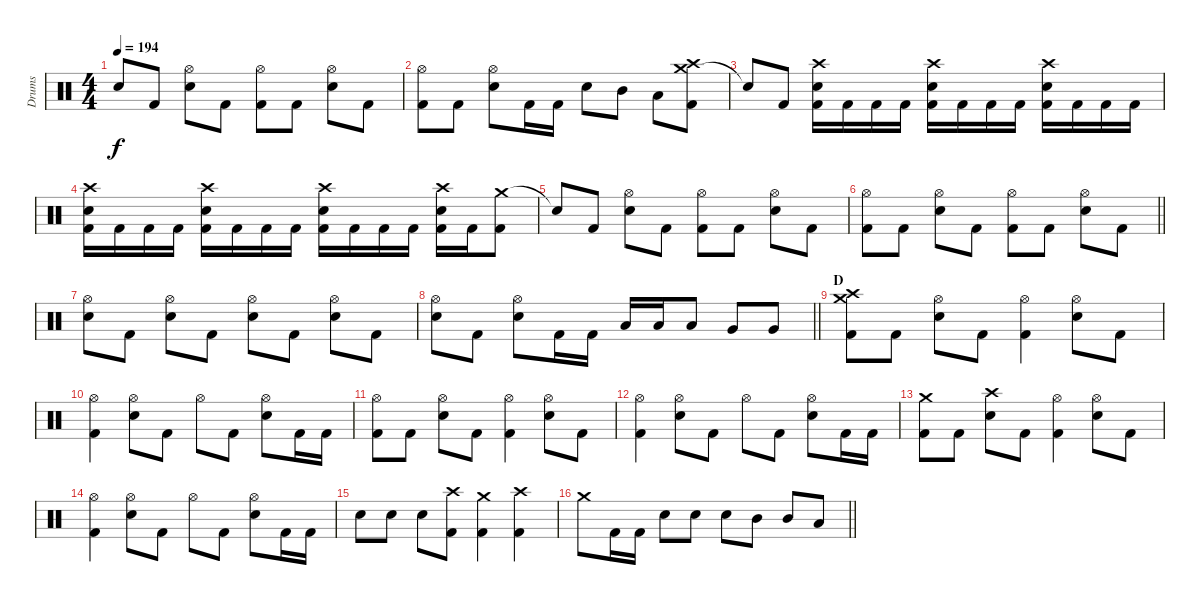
\track ("Drums" "Drums") {instrument percussion}
\staff {score}
\articulation defaults
\ts (4 4)
\tempo 194
\clef neutral
\ks c "Snare (hit)"{t}.8{dy f} "Kick (hit) 2".8
("Hi-Hat (open)" "Electric Snare (hit)").8 "Kick (hit) 2".8 ("Hi-Hat (open)" "Kick (hit) 2").8 "Kick (hit) 2".8 ("Hi-Hat (open)" "Electric Snare (hit)").8 "Kick (hit) 2".8 |
("Hi-Hat (open)" "Kick (hit) 2").8 "Kick (hit) 2".8 ("Hi-Hat (open)" "Electric Snare (hit)").8 "Kick (hit) 2".16 "Kick (hit) 2".16 "Electric Snare (hit)".8 "Mid Tom (hit)".8 "Low Tom (hit)".8 ("Crash medium (hit)" "Crash high (hit)" "Kick (hit) 2").8 |
"Snare (hit)"{t}.8 "Kick (hit) 2".8 ("Crash high (hit)" "Electric Snare (hit)" "Kick (hit) 2").16 "Kick (hit) 2".16 "Kick (hit) 2".16 "Kick (hit) 2".16 ("Crash high (hit)" "Electric Snare (hit)" "Kick (hit) 2").16 "Kick (hit) 2".16 "Kick (hit) 2".16 "Kick (hit) 2".16 ("Crash high (hit)" "Electric Snare (hit)" "Kick (hit) 2").16 "Kick (hit) 2".16 "Kick (hit) 2".16 "Kick (hit) 2".16 |
("Crash high (hit)" "Electric Snare (hit)" "Kick (hit) 2").16 "Kick (hit) 2".16 "Kick (hit) 2".16 "Kick (hit) 2".16 ("Crash high (hit)" "Electric Snare (hit)" "Kick (hit) 2").16 "Kick (hit) 2".16 "Kick (hit) 2".16 "Kick (hit) 2".16 ("Crash high (hit)" "Electric Snare (hit)" "Kick (hit) 2").16 "Kick (hit) 2".16 "Kick (hit) 2".16 "Kick (hit) 2".16 ("Crash high (hit)" "Electric Snare (hit)" "Kick (hit) 2").16 "Kick (hit) 2".16 ("Crash medium (hit)" "Kick (hit) 2").8 |
"Snare (hit)"{t}.8 "Kick (hit) 2".8 ("Hi-Hat (open)" "Electric Snare (hit)").8 "Kick (hit) 2".8 ("Hi-Hat (open)" "Kick (hit) 2").8 "Kick (hit) 2".8 ("Hi-Hat (open)" "Electric Snare (hit)").8 "Kick (hit) 2".8 |
\barLineRight lightlight
("Hi-Hat (open)" "Kick (hit) 2").8 "Kick (hit) 2".8 ("Hi-Hat (open)" "Electric Snare (hit)").8 "Kick (hit) 2".8 ("Hi-Hat (open)" "Kick (hit) 2").8 "Kick (hit) 2".8 ("Hi-Hat (open)" "Electric Snare (hit)").8 "Kick (hit) 2".8 |
\section ("" "")
("Hi-Hat (open)" "Electric Snare (hit)").8 "Kick (hit) 2".8 ("Hi-Hat (open)" "Electric Snare (hit)").8 "Kick (hit) 2".8 ("Hi-Hat (open)" "Electric Snare (hit)").8 "Kick (hit) 2".8 ("Hi-Hat (open)" "Electric Snare (hit)").8 "Kick (hit) 2".8 |
\barLineRight lightlight
("Hi-Hat (open)" "Electric Snare (hit)").8 "Kick (hit) 2".8 ("Hi-Hat (open)" "Electric Snare (hit)").8 "Kick (hit) 2".16 "Kick (hit) 2".16 "Low Tom (hit)".16 "Low Tom (hit)".16 "Low Tom (hit)".8 "Very Low Tom (hit)".8 "Very Low Tom (hit)".8 |
\section ("" "D")
("Crash medium (hit)" "Crash high (hit)" "Kick (hit) 2").8 "Kick (hit) 2".8 ("Hi-Hat (open)" "Electric Snare (hit)").8 "Kick (hit) 2".8 ("Hi-Hat (open)" "Kick (hit) 2").4 ("Hi-Hat (open)" "Electric Snare (hit)").8 "Kick (hit) 2".8 |
("Hi-Hat (open)" "Kick (hit) 2").4 ("Hi-Hat (open)" "Electric Snare (hit)").8 "Kick (hit) 2".8 "Hi-Hat (open)".8 "Kick (hit) 2".8 ("Hi-Hat (open)" "Electric Snare (hit)").8 "Kick (hit) 2".16 "Kick (hit) 2".16 |
("Hi-Hat (open)" "Kick (hit) 2").8 "Kick (hit) 2".8 ("Hi-Hat (open)" "Electric Snare (hit)").8 "Kick (hit) 2".8 ("Hi-Hat (open)" "Kick (hit) 2").4 ("Hi-Hat (open)" "Electric Snare (hit)").8 "Kick (hit) 2".8 |
("Hi-Hat (open)" "Kick (hit) 2").4 ("Hi-Hat (open)" "Electric Snare (hit)").8 "Kick (hit) 2".8 "Hi-Hat (open)".8 "Kick (hit) 2".8 ("Hi-Hat (open)" "Electric Snare (hit)").8 "Kick (hit) 2".16 "Kick (hit) 2".16 |
("Crash medium (hit)" "Kick (hit) 2").8 "Kick (hit) 2".8 ("Crash high (hit)" "Electric Snare (hit)").8 "Kick (hit) 2".8 ("Hi-Hat (open)" "Kick (hit) 2").4 ("Hi-Hat (open)" "Electric Snare (hit)").8 "Kick (hit) 2".8 |
("Hi-Hat (open)" "Kick (hit) 2").4 ("Hi-Hat (open)" "Electric Snare (hit)").8 "Kick (hit) 2".8 "Hi-Hat (open)".8 "Kick (hit) 2".8 ("Hi-Hat (open)" "Electric Snare (hit)").8 "Kick (hit) 2".16 "Kick (hit) 2".16 |
"Electric Snare (hit)".8 "Electric Snare (hit)".8 "Electric Snare (hit)".8 ("Crash high (hit)" "Kick (hit) 2").8 ("Crash medium (hit)" "Kick (hit) 2").4 ("Crash high (hit)" "Kick (hit) 2").4 |
\barLineRight lightlight "Crash medium (hit)".8 "Kick (hit) 2".16 "Kick (hit) 2".16 "Electric Snare (hit)".8 "Electric Snare (hit)".8 "Electric Snare (hit)".8 "Mid Tom (hit)".8 "Mid Tom (hit)".8 "Low Tom (hit)".8
